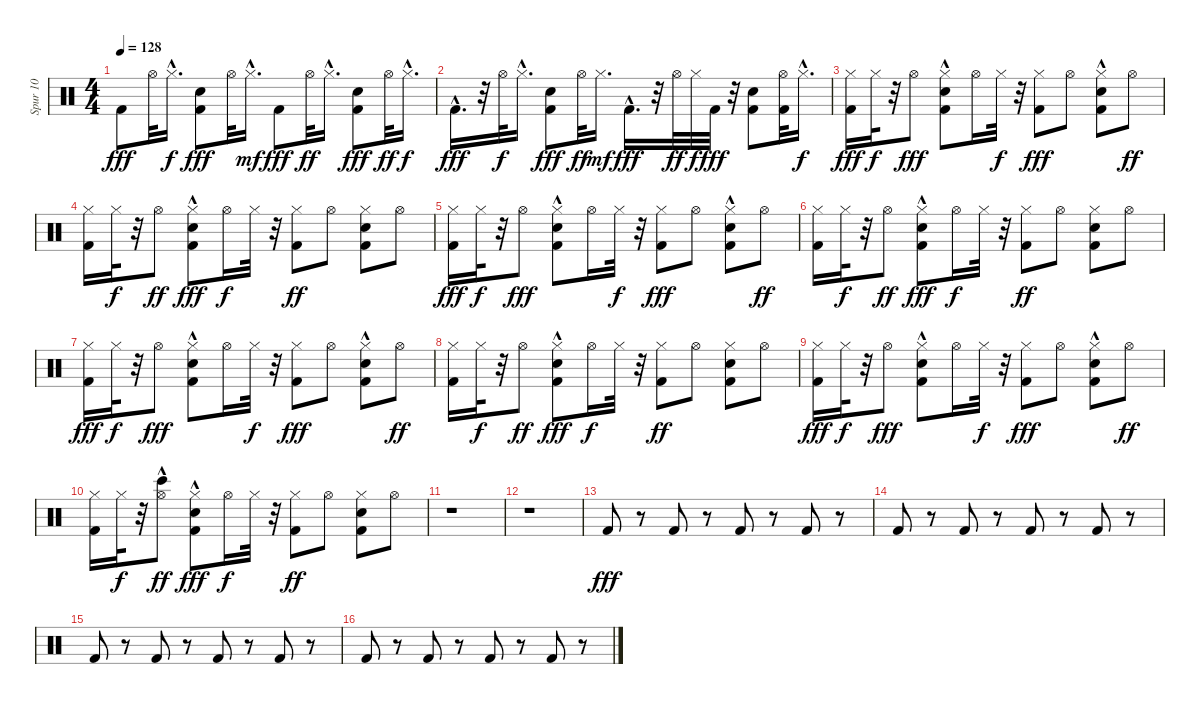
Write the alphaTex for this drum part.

\track ("Spur 10" "Spur 10") {instrument percussion}
\staff {score}
\articulation defaults
\ts (4 4)
\tempo 128
\clef neutral
\ks c "Kick (hit) 2".8{dy fff} "Hi-Hat (open)".32 "Hi-Hat (closed)"{hac}.16{d dy f}
("Hand Clap (hit)" "Kick (hit) 2").8{dy fff} "Hi-Hat (open)".32 "Hi-Hat (closed)"{hac}.16{d dy mf} "Kick (hit) 2".8{dy fff} "Hi-Hat (open)".32{dy ff} "Hi-Hat (closed)"{hac}.16{d} ("Hand Clap (hit)" "Kick (hit) 2").8{dy fff} "Hi-Hat (open)".32{dy ff} "Hi-Hat (closed)"{hac}.16{d dy f} |
"Kick (hit) 2"{hac}.16{d dy fff} r.32 "Hi-Hat (open)".32{dy f} "Hi-Hat (closed)"{hac}.16{d} ("Hand Clap (hit)" "Kick (hit) 2").8{dy fff} "Hi-Hat (open)".32{dy ff} "Hi-Hat (closed)".16{d dy mf} "Kick (hit) 2"{hac}.16{d dy fff} r.32 "Hi-Hat (open)".32{dy ff} "Hi-Hat (closed)".32{dy f} "Kick (hit) 2".32{dy fff} r.32 ("Kick (hit) 2" "Hand Clap (hit)").8 ("Hi-Hat (open)" "Kick (hit) 2").32 "Hi-Hat (closed)"{hac}.16{d dy f} |
("Kick (hit) 2" "Hi-Hat (closed)").16{dy fff} "Hi-Hat (closed)".32{dy f} r.32 "Hi-Hat (open)".8{dy fff} ("Kick (hit) 2"{hac} "Hi-Hat (closed)" "Hand Clap (hit)").8 "Hi-Hat (open)".16 "Hi-Hat (closed)".32{dy f} r.32 ("Hi-Hat (closed)" "Kick (hit) 2").8{dy fff} "Hi-Hat (open)".8 ("Hi-Hat (closed)" "Hand Clap (hit)" "Kick (hit) 2"{hac}).8 "Hi-Hat (open)".8{dy ff} |
("Kick (hit) 2" "Hi-Hat (closed)").16 "Hi-Hat (closed)".32{dy f} r.32 "Hi-Hat (open)".8{dy ff} ("Hand Clap (hit)" "Hi-Hat (closed)" "Kick (hit) 2"{hac}).8{dy fff} "Hi-Hat (open)".16{dy f} "Hi-Hat (closed)".32 r.32 ("Kick (hit) 2" "Hi-Hat (closed)").8{dy ff} "Hi-Hat (open)".8 ("Kick (hit) 2" "Hand Clap (hit)" "Hi-Hat (closed)").8 "Hi-Hat (open)".8 |
("Kick (hit) 2" "Hi-Hat (closed)").16{dy fff} "Hi-Hat (closed)".32{dy f} r.32 "Hi-Hat (open)".8{dy fff} ("Kick (hit) 2"{hac} "Hi-Hat (closed)" "Hand Clap (hit)").8 "Hi-Hat (open)".16 "Hi-Hat (closed)".32{dy f} r.32 ("Hi-Hat (closed)" "Kick (hit) 2").8{dy fff} "Hi-Hat (open)".8 ("Hi-Hat (closed)" "Hand Clap (hit)" "Kick (hit) 2"{hac}).8 "Hi-Hat (open)".8{dy ff} |
("Kick (hit) 2" "Hi-Hat (closed)").16 "Hi-Hat (closed)".32{dy f} r.32 "Hi-Hat (open)".8{dy ff} ("Hand Clap (hit)" "Hi-Hat (closed)" "Kick (hit) 2"{hac}).8{dy fff} "Hi-Hat (open)".16{dy f} "Hi-Hat (closed)".32 r.32 ("Kick (hit) 2" "Hi-Hat (closed)").8{dy ff} "Hi-Hat (open)".8 ("Kick (hit) 2" "Hand Clap (hit)" "Hi-Hat (closed)").8 "Hi-Hat (open)".8 |
("Kick (hit) 2" "Hi-Hat (closed)").16{dy fff} "Hi-Hat (closed)".32{dy f} r.32 "Hi-Hat (open)".8{dy fff} ("Kick (hit) 2"{hac} "Hi-Hat (closed)" "Hand Clap (hit)").8 "Hi-Hat (open)".16 "Hi-Hat (closed)".32{dy f} r.32 ("Hi-Hat (closed)" "Kick (hit) 2").8{dy fff} "Hi-Hat (open)".8 ("Hi-Hat (closed)" "Hand Clap (hit)" "Kick (hit) 2"{hac}).8 "Hi-Hat (open)".8{dy ff} |
("Kick (hit) 2" "Hi-Hat (closed)").16 "Hi-Hat (closed)".32{dy f} r.32 "Hi-Hat (open)".8{dy ff} ("Hand Clap (hit)" "Hi-Hat (closed)" "Kick (hit) 2"{hac}).8{dy fff} "Hi-Hat (open)".16{dy f} "Hi-Hat (closed)".32 r.32 ("Kick (hit) 2" "Hi-Hat (closed)").8{dy ff} "Hi-Hat (open)".8 ("Kick (hit) 2" "Hand Clap (hit)" "Hi-Hat (closed)").8 "Hi-Hat (open)".8 |
("Kick (hit) 2" "Hi-Hat (closed)").16{dy fff} "Hi-Hat (closed)".32{dy f} r.32 "Hi-Hat (open)".8{dy fff} ("Kick (hit) 2"{hac} "Hi-Hat (closed)" "Hand Clap (hit)").8 "Hi-Hat (open)".16 "Hi-Hat (closed)".32{dy f} r.32 ("Hi-Hat (closed)" "Kick (hit) 2").8{dy fff} "Hi-Hat (open)".8 ("Hi-Hat (closed)" "Hand Clap (hit)" "Kick (hit) 2"{hac}).8 "Hi-Hat (open)".8{dy ff} |
("Kick (hit) 2" "Hi-Hat (closed)").16 "Hi-Hat (closed)".32{dy f} r.32 ("Hi-Hat (open)" "Bongo High (hit)"{hac}).8{dy ff} ("Hand Clap (hit)" "Hi-Hat (closed)" "Kick (hit) 2"{hac}).8{dy fff} "Hi-Hat (open)".16{dy f} "Hi-Hat (closed)".32 r.32 ("Kick (hit) 2" "Hi-Hat (closed)").8{dy ff} "Hi-Hat (open)".8 ("Kick (hit) 2" "Hand Clap (hit)" "Hi-Hat (closed)").8 "Hi-Hat (open)".8 |
r.1 |
r.1 |
"Kick (hit) 2".8{dy fff} r.8 "Kick (hit) 2".8 r.8 "Kick (hit) 2".8 r.8 "Kick (hit) 2".8 r.8 |
"Kick (hit) 2".8 r.8 "Kick (hit) 2".8 r.8 "Kick (hit) 2".8 r.8 "Kick (hit) 2".8 r.8 |
"Kick (hit) 2".8 r.8 "Kick (hit) 2".8 r.8 "Kick (hit) 2".8 r.8 "Kick (hit) 2".8 r.8 |
"Kick (hit) 2".8 r.8 "Kick (hit) 2".8 r.8 "Kick (hit) 2".8 r.8 "Kick (hit) 2".8 r.8
